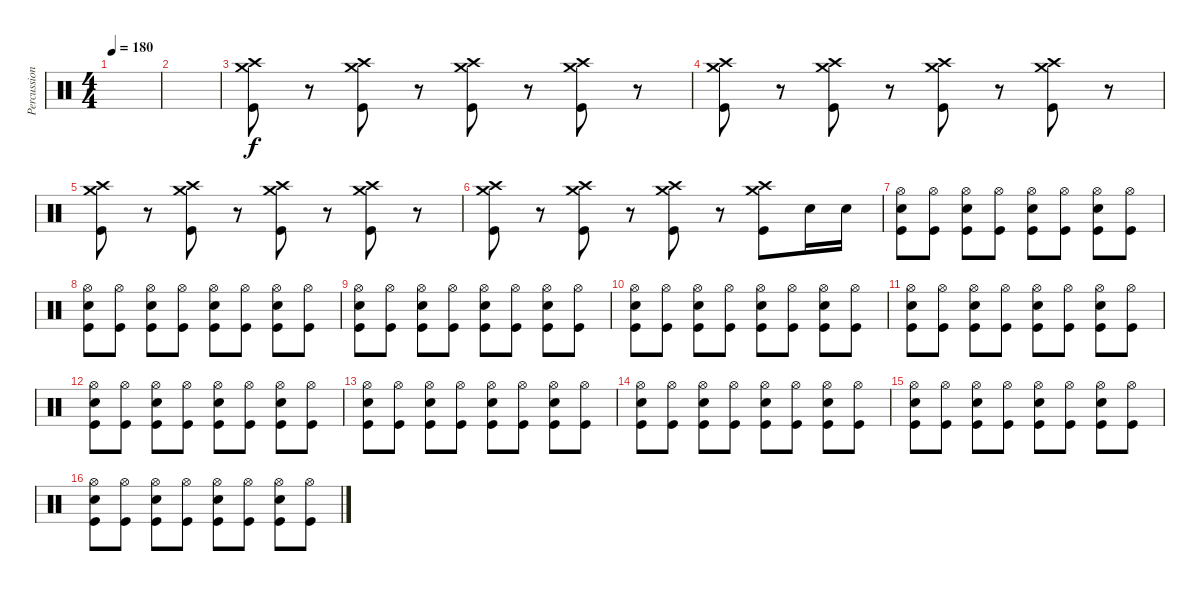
\track ("Percussion" "Percussion") {instrument percussion}
\staff {score}
\articulation defaults
\ts (4 4)
\tempo 180
\clef neutral
\ks c
|
|
("Crash high (hit)" "Crash medium (hit)" "Kick (hit)").8 r.8 ("Crash high (hit)" "Crash medium (hit)" "Kick (hit)").8 r.8 ("Crash high (hit)" "Crash medium (hit)" "Kick (hit)").8 r.8 ("Crash high (hit)" "Crash medium (hit)" "Kick (hit)").8 r.8 |
("Crash high (hit)" "Crash medium (hit)" "Kick (hit)").8 r.8 ("Crash high (hit)" "Crash medium (hit)" "Kick (hit)").8 r.8 ("Crash high (hit)" "Crash medium (hit)" "Kick (hit)").8 r.8 ("Crash high (hit)" "Crash medium (hit)" "Kick (hit)").8 r.8 |
("Crash high (hit)" "Crash medium (hit)" "Kick (hit)").8 r.8 ("Crash high (hit)" "Crash medium (hit)" "Kick (hit)").8 r.8 ("Crash high (hit)" "Crash medium (hit)" "Kick (hit)").8 r.8 ("Crash high (hit)" "Crash medium (hit)" "Kick (hit)").8 r.8 |
("Crash high (hit)" "Crash medium (hit)" "Kick (hit)").8 r.8 ("Crash high (hit)" "Crash medium (hit)" "Kick (hit)").8 r.8 ("Crash high (hit)" "Crash medium (hit)" "Kick (hit)").8 r.8 ("Crash high (hit)" "Crash medium (hit)" "Kick (hit)").8 "Snare (hit) 2".16 "Snare (hit) 2".16 |
("Hi-Hat (open)" "Snare (hit) 2" "Kick (hit)").8 ("Hi-Hat (open)" "Kick (hit)").8 ("Hi-Hat (open)" "Snare (hit) 2" "Kick (hit)").8 ("Hi-Hat (open)" "Kick (hit)").8 ("Hi-Hat (open)" "Snare (hit) 2" "Kick (hit)").8 ("Hi-Hat (open)" "Kick (hit)").8 ("Hi-Hat (open)" "Snare (hit) 2" "Kick (hit)").8 ("Hi-Hat (open)" "Kick (hit)").8 |
("Hi-Hat (open)" "Snare (hit) 2" "Kick (hit)").8 ("Hi-Hat (open)" "Kick (hit)").8 ("Hi-Hat (open)" "Snare (hit) 2" "Kick (hit)").8 ("Hi-Hat (open)" "Kick (hit)").8 ("Hi-Hat (open)" "Snare (hit) 2" "Kick (hit)").8 ("Hi-Hat (open)" "Kick (hit)").8 ("Hi-Hat (open)" "Snare (hit) 2" "Kick (hit)").8 ("Hi-Hat (open)" "Kick (hit)").8 |
("Hi-Hat (open)" "Snare (hit) 2" "Kick (hit)").8 ("Hi-Hat (open)" "Kick (hit)").8 ("Hi-Hat (open)" "Snare (hit) 2" "Kick (hit)").8 ("Hi-Hat (open)" "Kick (hit)").8 ("Hi-Hat (open)" "Snare (hit) 2" "Kick (hit)").8 ("Hi-Hat (open)" "Kick (hit)").8 ("Hi-Hat (open)" "Snare (hit) 2" "Kick (hit)").8 ("Hi-Hat (open)" "Kick (hit)").8 |
("Hi-Hat (open)" "Snare (hit) 2" "Kick (hit)").8 ("Hi-Hat (open)" "Kick (hit)").8 ("Hi-Hat (open)" "Snare (hit) 2" "Kick (hit)").8 ("Hi-Hat (open)" "Kick (hit)").8 ("Hi-Hat (open)" "Snare (hit) 2" "Kick (hit)").8 ("Hi-Hat (open)" "Kick (hit)").8 ("Hi-Hat (open)" "Snare (hit) 2" "Kick (hit)").8 ("Hi-Hat (open)" "Kick (hit)").8 |
("Hi-Hat (open)" "Snare (hit) 2" "Kick (hit)").8 ("Hi-Hat (open)" "Kick (hit)").8 ("Hi-Hat (open)" "Snare (hit) 2" "Kick (hit)").8 ("Hi-Hat (open)" "Kick (hit)").8 ("Hi-Hat (open)" "Snare (hit) 2" "Kick (hit)").8 ("Hi-Hat (open)" "Kick (hit)").8 ("Hi-Hat (open)" "Snare (hit) 2" "Kick (hit)").8 ("Hi-Hat (open)" "Kick (hit)").8 |
("Hi-Hat (open)" "Snare (hit) 2" "Kick (hit)").8 ("Hi-Hat (open)" "Kick (hit)").8 ("Hi-Hat (open)" "Snare (hit) 2" "Kick (hit)").8 ("Hi-Hat (open)" "Kick (hit)").8 ("Hi-Hat (open)" "Snare (hit) 2" "Kick (hit)").8 ("Hi-Hat (open)" "Kick (hit)").8 ("Hi-Hat (open)" "Snare (hit) 2" "Kick (hit)").8 ("Hi-Hat (open)" "Kick (hit)").8 |
("Hi-Hat (open)" "Snare (hit) 2" "Kick (hit)").8 ("Hi-Hat (open)" "Kick (hit)").8 ("Hi-Hat (open)" "Snare (hit) 2" "Kick (hit)").8 ("Hi-Hat (open)" "Kick (hit)").8 ("Hi-Hat (open)" "Snare (hit) 2" "Kick (hit)").8 ("Hi-Hat (open)" "Kick (hit)").8 ("Hi-Hat (open)" "Snare (hit) 2" "Kick (hit)").8 ("Hi-Hat (open)" "Kick (hit)").8 |
("Hi-Hat (open)" "Snare (hit) 2" "Kick (hit)").8 ("Hi-Hat (open)" "Kick (hit)").8 ("Hi-Hat (open)" "Snare (hit) 2" "Kick (hit)").8 ("Hi-Hat (open)" "Kick (hit)").8 ("Hi-Hat (open)" "Snare (hit) 2" "Kick (hit)").8 ("Hi-Hat (open)" "Kick (hit)").8 ("Hi-Hat (open)" "Snare (hit) 2" "Kick (hit)").8 ("Hi-Hat (open)" "Kick (hit)").8 |
("Hi-Hat (open)" "Snare (hit) 2" "Kick (hit)").8 ("Hi-Hat (open)" "Kick (hit)").8 ("Hi-Hat (open)" "Snare (hit) 2" "Kick (hit)").8 ("Hi-Hat (open)" "Kick (hit)").8 ("Hi-Hat (open)" "Snare (hit) 2" "Kick (hit)").8 ("Hi-Hat (open)" "Kick (hit)").8 ("Hi-Hat (open)" "Snare (hit) 2" "Kick (hit)").8 ("Hi-Hat (open)" "Kick (hit)").8 |
("Hi-Hat (open)" "Snare (hit) 2" "Kick (hit)").8 ("Hi-Hat (open)" "Kick (hit)").8 ("Hi-Hat (open)" "Snare (hit) 2" "Kick (hit)").8 ("Hi-Hat (open)" "Kick (hit)").8 ("Hi-Hat (open)" "Snare (hit) 2" "Kick (hit)").8 ("Hi-Hat (open)" "Kick (hit)").8 ("Hi-Hat (open)" "Snare (hit) 2" "Kick (hit)").8 ("Hi-Hat (open)" "Kick (hit)").8
